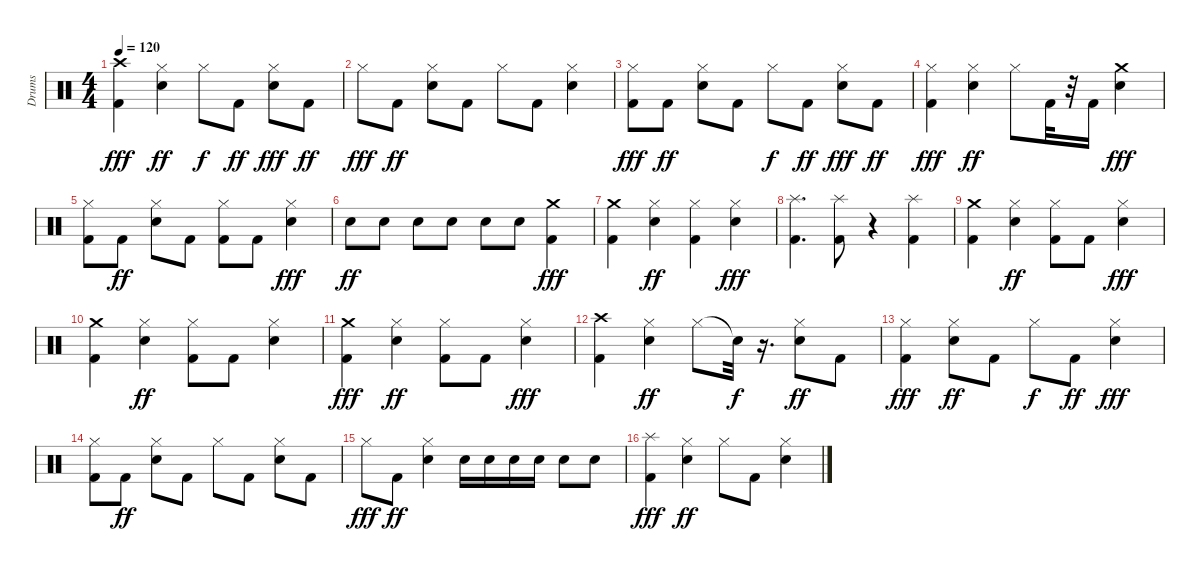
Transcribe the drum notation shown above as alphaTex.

\track ("Drums" "Drums") {instrument percussion}
\staff {score}
\articulation defaults
\ts (4 4)
\tempo 120
\clef neutral
\ks c
("Kick (hit) 2" "Crash high (hit)").4{dy fff} ("Electric Snare (hit)" "Hi-Hat (closed)").4{dy ff} "Hi-Hat (closed)".8{dy f} "Kick (hit) 2".8{dy ff} ("Electric Snare (hit)" "Hi-Hat (closed)").8{dy fff} "Kick (hit) 2".8{dy ff} |
"Hi-Hat (closed)".8{dy fff} "Kick (hit) 2".8{dy ff} ("Electric Snare (hit)" "Hi-Hat (closed)").8 "Kick (hit) 2".8 "Hi-Hat (closed)".8 "Kick (hit) 2".8 ("Electric Snare (hit)" "Hi-Hat (closed)").4 |
("Kick (hit) 2" "Hi-Hat (closed)").8{dy fff} "Kick (hit) 2".8{dy ff} ("Electric Snare (hit)" "Hi-Hat (closed)").8 "Kick (hit) 2".8 "Hi-Hat (closed)".8{dy f} "Kick (hit) 2".8{dy ff} ("Electric Snare (hit)" "Hi-Hat (closed)").8{dy fff} "Kick (hit) 2".8{dy ff} |
("Kick (hit) 2" "Hi-Hat (closed)").4{dy fff} ("Electric Snare (hit)" "Hi-Hat (closed)").4{dy ff} "Hi-Hat (closed)".8 "Kick (hit) 2".32 r.32 "Kick (hit) 2".16 ("Electric Snare (hit)" "Crash medium (hit)").4{dy fff} |
("Kick (hit) 2" "Hi-Hat (closed)").8 "Kick (hit) 2".8{dy ff} ("Electric Snare (hit)" "Hi-Hat (closed)").8 "Kick (hit) 2".8 ("Kick (hit) 2" "Hi-Hat (closed)").8 "Kick (hit) 2".8 ("Electric Snare (hit)" "Hi-Hat (closed)").4{dy fff} |
"Electric Snare (hit)".8{dy ff} "Electric Snare (hit)".8 "Electric Snare (hit)".8 "Electric Snare (hit)".8 "Electric Snare (hit)".8 "Electric Snare (hit)".8 ("Kick (hit) 2" "Crash medium (hit)").4{dy fff} |
("Kick (hit) 2" "Crash medium (hit)").4 ("Electric Snare (hit)" "Hi-Hat (closed)").4{dy ff} ("Kick (hit) 2" "Hi-Hat (closed)").4 ("Electric Snare (hit)" "Hi-Hat (closed)").4{dy fff} |
("Kick (hit) 2" "Splash (hit)").4{d} ("Kick (hit) 2" "Splash (hit)").8 r.4 ("Kick (hit) 2" "Splash (hit)").4 |
("Kick (hit) 2" "Crash medium (hit)").4 ("Electric Snare (hit)" "Hi-Hat (closed)").4{dy ff} ("Kick (hit) 2" "Hi-Hat (closed)").8 "Kick (hit) 2".8 ("Electric Snare (hit)" "Hi-Hat (closed)").4{dy fff} |
("Kick (hit) 2" "Crash medium (hit)").4 ("Electric Snare (hit)" "Hi-Hat (closed)").4{dy ff} ("Kick (hit) 2" "Hi-Hat (closed)").8 "Kick (hit) 2".8 ("Electric Snare (hit)" "Hi-Hat (closed)").4 |
("Kick (hit) 2" "Crash medium (hit)").4{dy fff} ("Electric Snare (hit)" "Hi-Hat (closed)").4{dy ff} ("Kick (hit) 2" "Hi-Hat (closed)").8 "Kick (hit) 2".8 ("Electric Snare (hit)" "Hi-Hat (closed)").4{dy fff} |
("Kick (hit) 2" "Crash high (hit)").4 ("Electric Snare (hit)" "Hi-Hat (closed)").4{dy ff} "Hi-Hat (closed)".8 "Snare (hit)"{t}.32{dy f} r.16{d} ("Electric Snare (hit)" "Hi-Hat (closed)").8{dy ff} "Kick (hit) 2".8 |
("Kick (hit) 2" "Hi-Hat (closed)").4{dy fff} ("Electric Snare (hit)" "Hi-Hat (closed)").8{dy ff} "Kick (hit) 2".8 "Hi-Hat (closed)".8{dy f} "Kick (hit) 2".8{dy ff} ("Electric Snare (hit)" "Hi-Hat (closed)").4{dy fff} |
("Kick (hit) 2" "Hi-Hat (closed)").8 "Kick (hit) 2".8{dy ff} ("Electric Snare (hit)" "Hi-Hat (closed)").8 "Kick (hit) 2".8 "Hi-Hat (closed)".8 "Kick (hit) 2".8 ("Electric Snare (hit)" "Hi-Hat (closed)").8 "Kick (hit) 2".8 |
"Hi-Hat (closed)".8{dy fff} "Kick (hit) 2".8{dy ff} ("Electric Snare (hit)" "Hi-Hat (closed)").4 "Electric Snare (hit)".16 "Electric Snare (hit)".16 "Electric Snare (hit)".16 "Electric Snare (hit)".16 "Electric Snare (hit)".8 "Electric Snare (hit)".8 |
("Kick (hit) 2" "Splash (hit)").4{dy fff} ("Electric Snare (hit)" "Hi-Hat (closed)").4{dy ff} "Hi-Hat (closed)".8 "Kick (hit) 2".8 ("Electric Snare (hit)" "Hi-Hat (closed)").4
